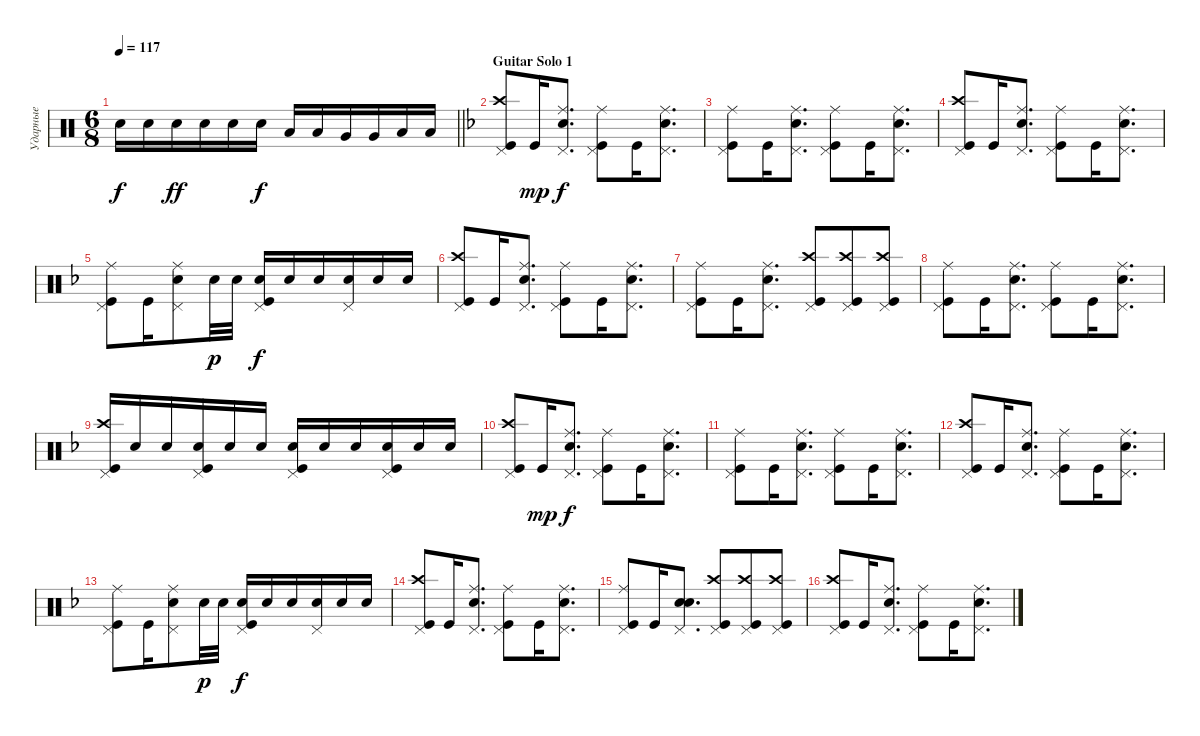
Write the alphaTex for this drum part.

\track ("Ударные" "Ударные") {instrument percussion}
\staff {score}
\articulation defaults
\ts (6 8)
\tempo 117
\clef neutral
\barLineRight lightlight
\ks aminor "Snare (hit) 2".16{dy f} "Snare (hit) 2".16 "Snare (hit) 2".16{dy ff} "Snare (hit) 2".16 "Snare (hit) 2".16 "Snare (hit) 2".16{dy f} "Low Tom (hit)".16 "Low Tom (hit)".16 "Very Low Tom (hit)".16 "Very Low Tom (hit)".16 "Low Floor Tom (hit)".16 "Low Floor Tom (hit)".16
|
\section ("" "Guitar Solo 1")
\ks dminor
("Kick (hit)" "Crash high (hit)" "Pedal Hi-Hat (hit)").8 "Kick (hit)".16{dy mp} ("Snare (hit) 2" "Ride (middle)" "Pedal Hi-Hat (hit)").8{d dy f} ("Kick (hit)" "Ride (middle)" "Pedal Hi-Hat (hit)").8 "Kick (hit)".16 ("Snare (hit) 2" "Ride (middle)" "Pedal Hi-Hat (hit)").8{d} |
("Kick (hit)" "Ride (middle)" "Pedal Hi-Hat (hit)").8 "Kick (hit)".16 ("Snare (hit) 2" "Ride (middle)" "Pedal Hi-Hat (hit)").8{d} ("Kick (hit)" "Ride (middle)" "Pedal Hi-Hat (hit)").8 "Kick (hit)".16 ("Snare (hit) 2" "Ride (middle)" "Pedal Hi-Hat (hit)").8{d} |
("Kick (hit)" "Crash high (hit)" "Pedal Hi-Hat (hit)").8 "Kick (hit)".16 ("Snare (hit) 2" "Pedal Hi-Hat (hit)" "Ride (middle)").8{d} ("Kick (hit)" "Pedal Hi-Hat (hit)" "Ride (middle)").8 "Kick (hit)".16 ("Snare (hit) 2" "Pedal Hi-Hat (hit)" "Ride (middle)").8{d} |
("Kick (hit)" "Pedal Hi-Hat (hit)" "Ride (middle)").8 "Kick (hit)".16 ("Snare (hit) 2" "Pedal Hi-Hat (hit)" "Ride (middle)").8 "Snare (hit) 2".32{dy p} "Snare (hit) 2".32 ("Kick (hit)" "Snare (hit) 2" "Pedal Hi-Hat (hit)").16{dy f} "Snare (hit) 2".16 "Snare (hit) 2".16 ("Snare (hit) 2" "Pedal Hi-Hat (hit)").16 "Snare (hit) 2".16 "Snare (hit) 2".16 |
("Kick (hit)" "Crash high (hit)" "Pedal Hi-Hat (hit)").8 "Kick (hit)".16 ("Snare (hit) 2" "Pedal Hi-Hat (hit)" "Ride (middle)").8{d} ("Kick (hit)" "Pedal Hi-Hat (hit)" "Ride (middle)").8 "Kick (hit)".16 ("Snare (hit) 2" "Pedal Hi-Hat (hit)" "Ride (middle)").8{d} |
("Kick (hit)" "Pedal Hi-Hat (hit)" "Ride (middle)").8 "Kick (hit)".16 ("Snare (hit) 2" "Pedal Hi-Hat (hit)" "Ride (middle)").8{d} ("Kick (hit)" "Crash high (hit)" "Pedal Hi-Hat (hit)").8 ("Kick (hit)" "Crash high (hit)" "Pedal Hi-Hat (hit)").8 ("Crash high (hit)" "Pedal Hi-Hat (hit)" "Kick (hit)").8 |
("Kick (hit)" "Pedal Hi-Hat (hit)" "Ride (middle)").8 "Kick (hit)".16 ("Snare (hit) 2" "Pedal Hi-Hat (hit)" "Ride (middle)").8{d} ("Kick (hit)" "Pedal Hi-Hat (hit)" "Ride (middle)").8 "Kick (hit)".16 ("Snare (hit) 2" "Pedal Hi-Hat (hit)" "Ride (middle)").8{d} |
("Kick (hit)" "Crash high (hit)" "Pedal Hi-Hat (hit)").16 "Snare (hit) 2".16 "Snare (hit) 2".16 ("Snare (hit) 2" "Kick (hit)" "Pedal Hi-Hat (hit)").16 "Snare (hit) 2".16 "Snare (hit) 2".16 ("Snare (hit) 2" "Kick (hit)" "Pedal Hi-Hat (hit)").16 "Snare (hit) 2".16 "Snare (hit) 2".16 ("Snare (hit) 2" "Kick (hit)" "Pedal Hi-Hat (hit)").16 "Snare (hit) 2".16 "Snare (hit) 2".16 |
("Kick (hit)" "Crash high (hit)" "Pedal Hi-Hat (hit)").8 "Kick (hit)".16{dy mp} ("Snare (hit) 2" "Ride (middle)" "Pedal Hi-Hat (hit)").8{d dy f} ("Kick (hit)" "Ride (middle)" "Pedal Hi-Hat (hit)").8 "Kick (hit)".16 ("Snare (hit) 2" "Ride (middle)" "Pedal Hi-Hat (hit)").8{d} |
("Kick (hit)" "Ride (middle)" "Pedal Hi-Hat (hit)").8 "Kick (hit)".16 ("Snare (hit) 2" "Ride (middle)" "Pedal Hi-Hat (hit)").8{d} ("Kick (hit)" "Ride (middle)" "Pedal Hi-Hat (hit)").8 "Kick (hit)".16 ("Snare (hit) 2" "Ride (middle)" "Pedal Hi-Hat (hit)").8{d} |
("Kick (hit)" "Crash high (hit)" "Pedal Hi-Hat (hit)").8 "Kick (hit)".16 ("Snare (hit) 2" "Pedal Hi-Hat (hit)" "Ride (middle)").8{d} ("Kick (hit)" "Pedal Hi-Hat (hit)" "Ride (middle)").8 "Kick (hit)".16 ("Snare (hit) 2" "Pedal Hi-Hat (hit)" "Ride (middle)").8{d} |
("Kick (hit)" "Pedal Hi-Hat (hit)" "Ride (middle)").8 "Kick (hit)".16 ("Snare (hit) 2" "Pedal Hi-Hat (hit)" "Ride (middle)").8 "Snare (hit) 2".32{dy p} "Snare (hit) 2".32 ("Kick (hit)" "Snare (hit) 2" "Pedal Hi-Hat (hit)").16{dy f} "Snare (hit) 2".16 "Snare (hit) 2".16 ("Snare (hit) 2" "Pedal Hi-Hat (hit)").16 "Snare (hit) 2".16 "Snare (hit) 2".16 |
("Kick (hit)" "Crash high (hit)" "Pedal Hi-Hat (hit)").8 "Kick (hit)".16 ("Snare (hit) 2" "Pedal Hi-Hat (hit)" "Ride (middle)").8{d} ("Kick (hit)" "Pedal Hi-Hat (hit)" "Ride (middle)").8 "Kick (hit)".16 ("Snare (hit) 2" "Pedal Hi-Hat (hit)" "Ride (middle)").8{d} |
("Kick (hit)" "Pedal Hi-Hat (hit)" "Ride (middle)").8 "Kick (hit)".16 ("Snare (hit) 2" "Snare (hit) 2" "Pedal Hi-Hat (hit)").8{d} ("Kick (hit)" "Crash high (hit)" "Pedal Hi-Hat (hit)").8 ("Kick (hit)" "Crash high (hit)" "Pedal Hi-Hat (hit)").8 ("Crash high (hit)" "Pedal Hi-Hat (hit)" "Kick (hit)").8 |
("Kick (hit)" "Crash high (hit)" "Pedal Hi-Hat (hit)").8 "Kick (hit)".16 ("Snare (hit) 2" "Pedal Hi-Hat (hit)" "Ride (middle)").8{d} ("Kick (hit)" "Pedal Hi-Hat (hit)" "Ride (middle)").8 "Kick (hit)".16 ("Snare (hit) 2" "Pedal Hi-Hat (hit)" "Ride (middle)").8{d}
